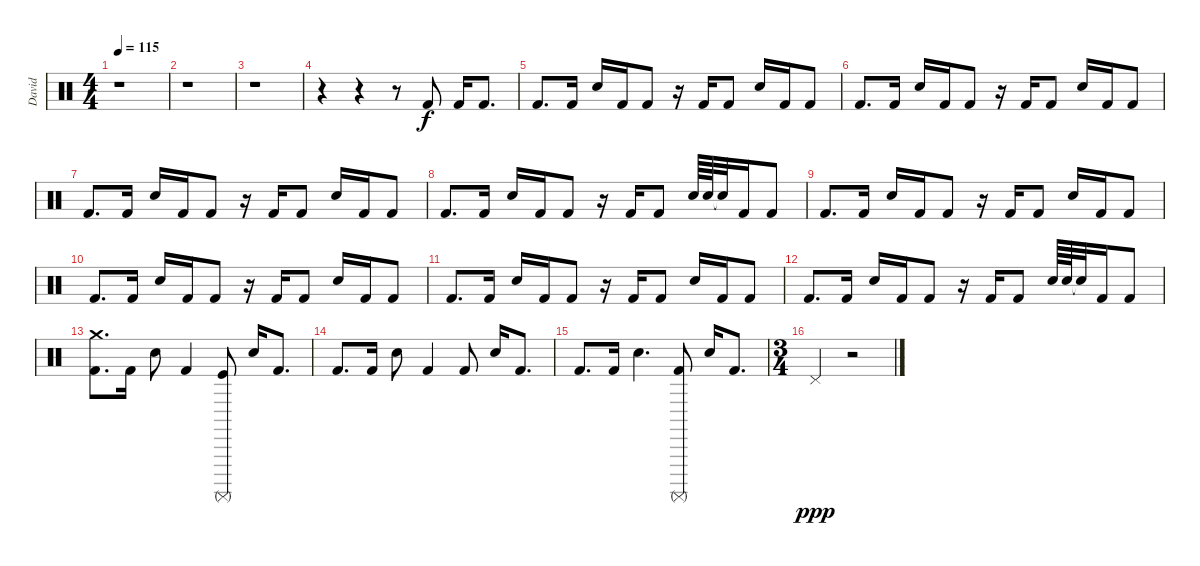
\track ("David" "David") {instrument percussion}
\staff {score}
\articulation defaults
\ts (4 4)
\tempo 115
\clef neutral
\ks c
r.1{dy f} |
r.1 |
r.1 |
r.4 r.4 r.8 "Kick (hit) 2".8 "Kick (hit) 2".16 "Kick (hit) 2".8{d} |
"Kick (hit) 2".8{d} "Kick (hit) 2".16 "Snare (hit) 2".16 "Kick (hit) 2".16 "Kick (hit) 2".8 r.16 "Kick (hit) 2".16 "Kick (hit) 2".8 "Snare (hit) 2".16 "Kick (hit) 2".16 "Kick (hit) 2".8 |
"Kick (hit) 2".8{d} "Kick (hit) 2".16 "Snare (hit) 2".16 "Kick (hit) 2".16 "Kick (hit) 2".8 r.16 "Kick (hit) 2".16 "Kick (hit) 2".8 "Snare (hit) 2".16 "Kick (hit) 2".16 "Kick (hit) 2".8 |
"Kick (hit) 2".8{d} "Kick (hit) 2".16 "Snare (hit) 2".16 "Kick (hit) 2".16 "Kick (hit) 2".8 r.16 "Kick (hit) 2".16 "Kick (hit) 2".8 "Snare (hit) 2".16 "Kick (hit) 2".16 "Kick (hit) 2".8 |
"Kick (hit) 2".8{d} "Kick (hit) 2".16 "Snare (hit) 2".16 "Kick (hit) 2".16 "Kick (hit) 2".8 r.16 "Kick (hit) 2".16 "Kick (hit) 2".8 "Snare (hit) 2".64 "Snare (hit) 2".64 "Snare (hit)"{t}.32 "Kick (hit) 2".16 "Kick (hit) 2".8 |
"Kick (hit) 2".8{d} "Kick (hit) 2".16 "Snare (hit) 2".16 "Kick (hit) 2".16 "Kick (hit) 2".8 r.16 "Kick (hit) 2".16 "Kick (hit) 2".8 "Snare (hit) 2".16 "Kick (hit) 2".16 "Kick (hit) 2".8 |
"Kick (hit) 2".8{d} "Kick (hit) 2".16 "Snare (hit) 2".16 "Kick (hit) 2".16 "Kick (hit) 2".8 r.16 "Kick (hit) 2".16 "Kick (hit) 2".8 "Snare (hit) 2".16 "Kick (hit) 2".16 "Kick (hit) 2".8 |
"Kick (hit) 2".8{d} "Kick (hit) 2".16 "Snare (hit) 2".16 "Kick (hit) 2".16 "Kick (hit) 2".8 r.16 "Kick (hit) 2".16 "Kick (hit) 2".8 "Snare (hit) 2".16 "Kick (hit) 2".16 "Kick (hit) 2".8 |
"Kick (hit) 2".8{d} "Kick (hit) 2".16 "Snare (hit) 2".16 "Kick (hit) 2".16 "Kick (hit) 2".8 r.16 "Kick (hit) 2".16 "Kick (hit) 2".8 "Snare (hit) 2".64 "Snare (hit) 2".64 "Snare (hit)"{t}.32 "Kick (hit) 2".16 "Kick (hit) 2".8 |
("Crash medium (hit)" "Kick (hit) 2").8{d} "Kick (hit) 2".16 "Snare (hit) 2".8 "Kick (hit) 2".4 ("Kick (hit)" "Surdo (mute)").8 "Snare (hit) 2".16 "Kick (hit) 2".8{d} |
"Kick (hit) 2".8{d} "Kick (hit) 2".16 "Snare (hit) 2".8 "Kick (hit) 2".4 "Kick (hit) 2".8 "Snare (hit) 2".16 "Kick (hit) 2".8{d} |
"Kick (hit) 2".8{d} "Kick (hit) 2".16 "Snare (hit) 2".4{d} ("Surdo (mute)" "Kick (hit) 2").8 "Snare (hit) 2".16 "Kick (hit) 2".8{d} |
\ts (3 4)
"Pedal Hi-Hat (hit)".4{dy ppp} r.2
